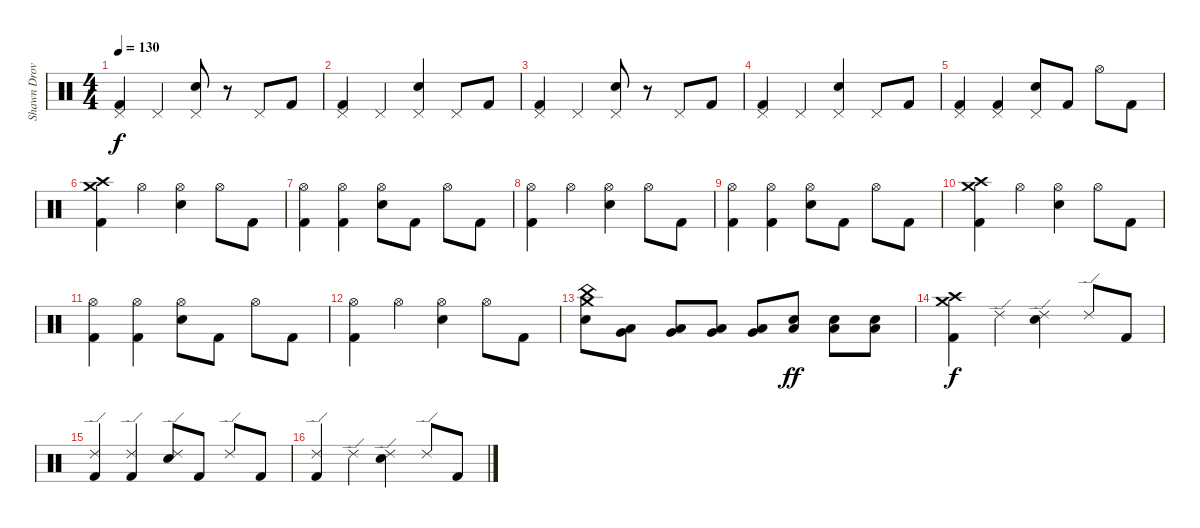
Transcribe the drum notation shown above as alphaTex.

\track ("Shawn Drover" "Shawn Drov") {instrument percussion}
\staff {score}
\articulation defaults
\ts (4 4)
\tempo 130
\clef neutral
\ks c
("Pedal Hi-Hat (hit)" "Kick (hit) 2").4{dy f} "Pedal Hi-Hat (hit)".4 ("Pedal Hi-Hat (hit)" "Snare (hit) 2").8 r.8 "Pedal Hi-Hat (hit)".8 "Kick (hit) 2".8 |
("Pedal Hi-Hat (hit)" "Kick (hit) 2").4 "Pedal Hi-Hat (hit)".4 ("Pedal Hi-Hat (hit)" "Snare (hit) 2").4 "Pedal Hi-Hat (hit)".8 "Kick (hit) 2".8 |
("Pedal Hi-Hat (hit)" "Kick (hit) 2").4 "Pedal Hi-Hat (hit)".4 ("Pedal Hi-Hat (hit)" "Snare (hit) 2").8 r.8 "Pedal Hi-Hat (hit)".8 "Kick (hit) 2".8 |
("Pedal Hi-Hat (hit)" "Kick (hit) 2").4 "Pedal Hi-Hat (hit)".4 ("Pedal Hi-Hat (hit)" "Snare (hit) 2").4 "Pedal Hi-Hat (hit)".8 "Kick (hit) 2".8 |
("Pedal Hi-Hat (hit)" "Kick (hit) 2").4 ("Pedal Hi-Hat (hit)" "Kick (hit) 2").4 ("Pedal Hi-Hat (hit)" "Snare (hit) 2").8 "Kick (hit) 2".8 "Hi-Hat (open)".8 "Kick (hit) 2".8 |
("Crash high (hit)" "Crash medium (hit)" "Kick (hit) 2").4 "Hi-Hat (open)".4 ("Hi-Hat (open)" "Snare (hit) 2").4 "Hi-Hat (open)".8 "Kick (hit) 2".8 |
("Hi-Hat (open)" "Kick (hit) 2").4 ("Hi-Hat (open)" "Kick (hit) 2").4 ("Hi-Hat (open)" "Snare (hit) 2").8 "Kick (hit) 2".8 "Hi-Hat (open)".8 "Kick (hit) 2".8 |
("Hi-Hat (open)" "Kick (hit) 2").4 "Hi-Hat (open)".4 ("Hi-Hat (open)" "Snare (hit) 2").4 "Hi-Hat (open)".8 "Kick (hit) 2".8 |
("Hi-Hat (open)" "Kick (hit) 2").4 ("Hi-Hat (open)" "Kick (hit) 2").4 ("Hi-Hat (open)" "Snare (hit) 2").8 "Kick (hit) 2".8 "Hi-Hat (open)".8 "Kick (hit) 2".8 |
("Crash high (hit)" "Crash medium (hit)" "Kick (hit) 2").4 "Hi-Hat (open)".4 ("Hi-Hat (open)" "Snare (hit) 2").4 "Hi-Hat (open)".8 "Kick (hit) 2".8 |
("Hi-Hat (open)" "Kick (hit) 2").4 ("Hi-Hat (open)" "Kick (hit) 2").4 ("Hi-Hat (open)" "Snare (hit) 2").8 "Kick (hit) 2".8 "Hi-Hat (open)".8 "Kick (hit) 2".8 |
("Hi-Hat (open)" "Kick (hit) 2").4 "Hi-Hat (open)".4 ("Hi-Hat (open)" "Snare (hit) 2").4 "Hi-Hat (open)".8 "Kick (hit) 2".8 |
("China (hit)" "Snare (hit) 2" "Crash medium (hit)").8 ("Low Floor Tom (hit)" "Very Low Tom (hit)").8 ("Low Floor Tom (hit)" "Very Low Tom (hit)").8 ("Low Floor Tom (hit)" "Very Low Tom (hit)").8 ("Low Floor Tom (hit)" "Very Low Tom (hit)").8 ("Snare (hit) 2" "Low Floor Tom (hit)").8{dy ff} ("Snare (hit) 2" "Low Floor Tom (hit)").8 ("Snare (hit) 2" "Low Floor Tom (hit)").8 |
("Crash high (hit)" "Crash medium (hit)" "Kick (hit) 2").4{dy f} "Ride (edge) 2".4 ("Ride (edge) 2" "Snare (hit) 2").4 "Ride (edge) 2".8 "Kick (hit) 2".8 |
("Ride (edge) 2" "Kick (hit) 2").4 ("Ride (edge) 2" "Kick (hit) 2").4 ("Ride (edge) 2" "Snare (hit) 2").8 "Kick (hit) 2".8 "Ride (edge) 2".8 "Kick (hit) 2".8 |
("Ride (edge) 2" "Kick (hit) 2").4 "Ride (edge) 2".4 ("Ride (edge) 2" "Snare (hit) 2").4 "Ride (edge) 2".8 "Kick (hit) 2".8
